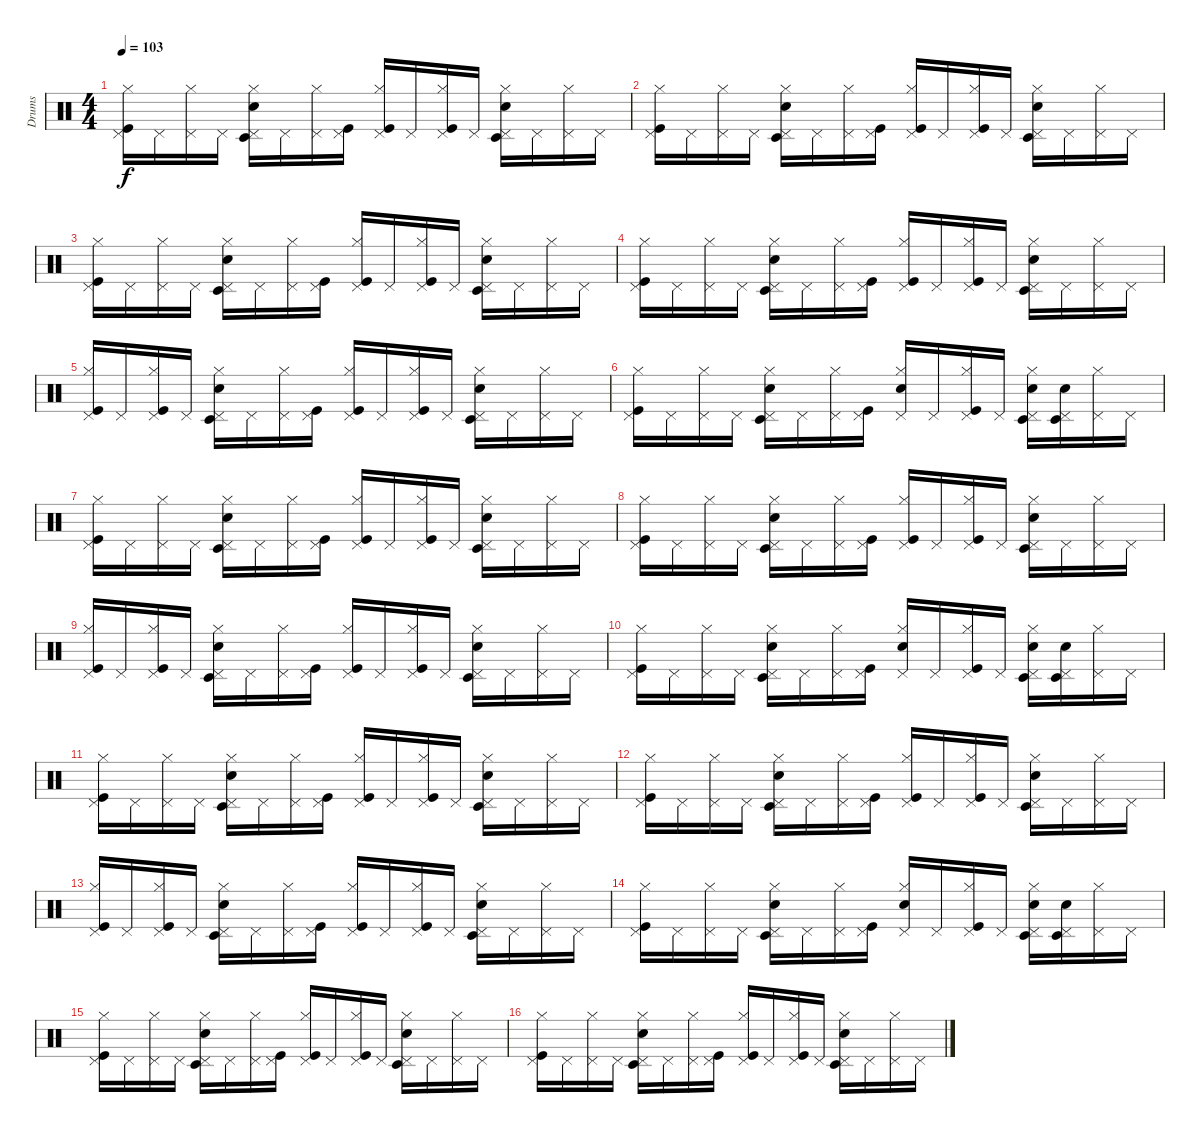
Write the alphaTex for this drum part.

\track ("Drums" "Drums") {instrument percussion}
\staff {score}
\articulation defaults
\ts (4 4)
\tempo 103
\clef neutral
\ks c
("Pedal Hi-Hat (hit)" "Hi-Hat (closed)" "Kick (hit)").16{dy f} "Pedal Hi-Hat (hit)".16 ("Pedal Hi-Hat (hit)" "Hi-Hat (closed)").16 "Pedal Hi-Hat (hit)".16 ("Pedal Hi-Hat (hit)" "Timbale low (hit)" "Hi-Hat (closed)" "Electric Snare (hit)").16 "Pedal Hi-Hat (hit)".16 ("Pedal Hi-Hat (hit)" "Hi-Hat (closed)").16 ("Pedal Hi-Hat (hit)" "Kick (hit)").16 ("Pedal Hi-Hat (hit)" "Kick (hit)" "Hi-Hat (closed)").16 "Pedal Hi-Hat (hit)".16 ("Pedal Hi-Hat (hit)" "Kick (hit)" "Hi-Hat (closed)").16 "Pedal Hi-Hat (hit)".16 ("Pedal Hi-Hat (hit)" "Timbale low (hit)" "Electric Snare (hit)" "Hi-Hat (closed)").16 "Pedal Hi-Hat (hit)".16 ("Pedal Hi-Hat (hit)" "Hi-Hat (closed)").16 "Pedal Hi-Hat (hit)".16 |
("Pedal Hi-Hat (hit)" "Hi-Hat (closed)" "Kick (hit)").16 "Pedal Hi-Hat (hit)".16 ("Pedal Hi-Hat (hit)" "Hi-Hat (closed)").16 "Pedal Hi-Hat (hit)".16 ("Pedal Hi-Hat (hit)" "Hi-Hat (closed)" "Electric Snare (hit)" "Timbale low (hit)").16 "Pedal Hi-Hat (hit)".16 ("Pedal Hi-Hat (hit)" "Hi-Hat (closed)").16 ("Pedal Hi-Hat (hit)" "Kick (hit)").16 ("Pedal Hi-Hat (hit)" "Kick (hit)" "Hi-Hat (closed)").16 "Pedal Hi-Hat (hit)".16 ("Pedal Hi-Hat (hit)" "Kick (hit)" "Hi-Hat (closed)").16 "Pedal Hi-Hat (hit)".16 ("Pedal Hi-Hat (hit)" "Electric Snare (hit)" "Hi-Hat (closed)" "Timbale low (hit)").16 "Pedal Hi-Hat (hit)".16 ("Pedal Hi-Hat (hit)" "Hi-Hat (closed)").16 "Pedal Hi-Hat (hit)".16 |
("Hi-Hat (closed)" "Kick (hit)" "Pedal Hi-Hat (hit)").16 "Pedal Hi-Hat (hit)".16 ("Hi-Hat (closed)" "Pedal Hi-Hat (hit)").16 "Pedal Hi-Hat (hit)".16 ("Hi-Hat (closed)" "Timbale low (hit)" "Electric Snare (hit)" "Pedal Hi-Hat (hit)").16 "Pedal Hi-Hat (hit)".16 ("Hi-Hat (closed)" "Pedal Hi-Hat (hit)").16 ("Kick (hit)" "Pedal Hi-Hat (hit)").16 ("Hi-Hat (closed)" "Kick (hit)" "Pedal Hi-Hat (hit)").16 "Pedal Hi-Hat (hit)".16 ("Hi-Hat (closed)" "Kick (hit)" "Pedal Hi-Hat (hit)").16 "Pedal Hi-Hat (hit)".16 ("Timbale low (hit)" "Electric Snare (hit)" "Hi-Hat (closed)" "Pedal Hi-Hat (hit)").16 "Pedal Hi-Hat (hit)".16 ("Hi-Hat (closed)" "Pedal Hi-Hat (hit)").16 "Pedal Hi-Hat (hit)".16 |
("Hi-Hat (closed)" "Kick (hit)" "Pedal Hi-Hat (hit)").16 "Pedal Hi-Hat (hit)".16 ("Hi-Hat (closed)" "Pedal Hi-Hat (hit)").16 "Pedal Hi-Hat (hit)".16 ("Timbale low (hit)" "Hi-Hat (closed)" "Electric Snare (hit)" "Pedal Hi-Hat (hit)").16 "Pedal Hi-Hat (hit)".16 ("Hi-Hat (closed)" "Pedal Hi-Hat (hit)").16 ("Kick (hit)" "Pedal Hi-Hat (hit)").16 ("Hi-Hat (closed)" "Kick (hit)" "Pedal Hi-Hat (hit)").16 "Pedal Hi-Hat (hit)".16 ("Hi-Hat (closed)" "Kick (hit)" "Pedal Hi-Hat (hit)").16 "Pedal Hi-Hat (hit)".16 ("Electric Snare (hit)" "Hi-Hat (closed)" "Timbale low (hit)" "Pedal Hi-Hat (hit)").16 "Pedal Hi-Hat (hit)".16 ("Hi-Hat (closed)" "Pedal Hi-Hat (hit)").16 "Pedal Hi-Hat (hit)".16 |
("Hi-Hat (closed)" "Kick (hit)" "Pedal Hi-Hat (hit)").16 "Pedal Hi-Hat (hit)".16 ("Kick (hit)" "Hi-Hat (closed)" "Pedal Hi-Hat (hit)").16 "Pedal Hi-Hat (hit)".16 ("Timbale low (hit)" "Hi-Hat (closed)" "Electric Snare (hit)" "Pedal Hi-Hat (hit)").16 "Pedal Hi-Hat (hit)".16 ("Hi-Hat (closed)" "Pedal Hi-Hat (hit)").16 ("Kick (hit)" "Pedal Hi-Hat (hit)").16 ("Kick (hit)" "Hi-Hat (closed)" "Pedal Hi-Hat (hit)").16 "Pedal Hi-Hat (hit)".16 ("Kick (hit)" "Hi-Hat (closed)" "Pedal Hi-Hat (hit)").16 "Pedal Hi-Hat (hit)".16 ("Timbale low (hit)" "Electric Snare (hit)" "Hi-Hat (closed)" "Pedal Hi-Hat (hit)").16 "Pedal Hi-Hat (hit)".16 ("Hi-Hat (closed)" "Pedal Hi-Hat (hit)").16 "Pedal Hi-Hat (hit)".16 |
("Hi-Hat (closed)" "Kick (hit)" "Pedal Hi-Hat (hit)").16 "Pedal Hi-Hat (hit)".16 ("Hi-Hat (closed)" "Pedal Hi-Hat (hit)").16 "Pedal Hi-Hat (hit)".16 ("Hi-Hat (closed)" "Electric Snare (hit)" "Timbale low (hit)" "Pedal Hi-Hat (hit)").16 "Pedal Hi-Hat (hit)".16 ("Hi-Hat (closed)" "Pedal Hi-Hat (hit)").16 ("Pedal Hi-Hat (hit)" "Kick (hit)").16 ("Hi-Hat (closed)" "Pedal Hi-Hat (hit)" "Electric Snare (hit)").16 "Pedal Hi-Hat (hit)".16 ("Kick (hit)" "Hi-Hat (closed)" "Pedal Hi-Hat (hit)").16 "Pedal Hi-Hat (hit)".16 ("Electric Snare (hit)" "Hi-Hat (closed)" "Timbale low (hit)" "Pedal Hi-Hat (hit)").16 ("Timbale low (hit)" "Electric Snare (hit)" "Pedal Hi-Hat (hit)").16 ("Hi-Hat (closed)" "Pedal Hi-Hat (hit)").16 "Pedal Hi-Hat (hit)".16 |
("Hi-Hat (closed)" "Kick (hit)" "Pedal Hi-Hat (hit)").16 "Pedal Hi-Hat (hit)".16 ("Hi-Hat (closed)" "Pedal Hi-Hat (hit)").16 "Pedal Hi-Hat (hit)".16 ("Hi-Hat (closed)" "Timbale low (hit)" "Electric Snare (hit)" "Pedal Hi-Hat (hit)").16 "Pedal Hi-Hat (hit)".16 ("Hi-Hat (closed)" "Pedal Hi-Hat (hit)").16 ("Kick (hit)" "Pedal Hi-Hat (hit)").16 ("Hi-Hat (closed)" "Kick (hit)" "Pedal Hi-Hat (hit)").16 "Pedal Hi-Hat (hit)".16 ("Hi-Hat (closed)" "Kick (hit)" "Pedal Hi-Hat (hit)").16 "Pedal Hi-Hat (hit)".16 ("Timbale low (hit)" "Electric Snare (hit)" "Hi-Hat (closed)" "Pedal Hi-Hat (hit)").16 "Pedal Hi-Hat (hit)".16 ("Hi-Hat (closed)" "Pedal Hi-Hat (hit)").16 "Pedal Hi-Hat (hit)".16 |
("Hi-Hat (closed)" "Kick (hit)" "Pedal Hi-Hat (hit)").16 "Pedal Hi-Hat (hit)".16 ("Hi-Hat (closed)" "Pedal Hi-Hat (hit)").16 "Pedal Hi-Hat (hit)".16 ("Timbale low (hit)" "Hi-Hat (closed)" "Electric Snare (hit)" "Pedal Hi-Hat (hit)").16 "Pedal Hi-Hat (hit)".16 ("Hi-Hat (closed)" "Pedal Hi-Hat (hit)").16 ("Kick (hit)" "Pedal Hi-Hat (hit)").16 ("Hi-Hat (closed)" "Kick (hit)" "Pedal Hi-Hat (hit)").16 "Pedal Hi-Hat (hit)".16 ("Hi-Hat (closed)" "Kick (hit)" "Pedal Hi-Hat (hit)").16 "Pedal Hi-Hat (hit)".16 ("Electric Snare (hit)" "Hi-Hat (closed)" "Timbale low (hit)" "Pedal Hi-Hat (hit)").16 "Pedal Hi-Hat (hit)".16 ("Hi-Hat (closed)" "Pedal Hi-Hat (hit)").16 "Pedal Hi-Hat (hit)".16 |
("Hi-Hat (closed)" "Kick (hit)" "Pedal Hi-Hat (hit)").16 "Pedal Hi-Hat (hit)".16 ("Kick (hit)" "Hi-Hat (closed)" "Pedal Hi-Hat (hit)").16 "Pedal Hi-Hat (hit)".16 ("Timbale low (hit)" "Hi-Hat (closed)" "Electric Snare (hit)" "Pedal Hi-Hat (hit)").16 "Pedal Hi-Hat (hit)".16 ("Hi-Hat (closed)" "Pedal Hi-Hat (hit)").16 ("Kick (hit)" "Pedal Hi-Hat (hit)").16 ("Kick (hit)" "Hi-Hat (closed)" "Pedal Hi-Hat (hit)").16 "Pedal Hi-Hat (hit)".16 ("Kick (hit)" "Hi-Hat (closed)" "Pedal Hi-Hat (hit)").16 "Pedal Hi-Hat (hit)".16 ("Timbale low (hit)" "Electric Snare (hit)" "Hi-Hat (closed)" "Pedal Hi-Hat (hit)").16 "Pedal Hi-Hat (hit)".16 ("Hi-Hat (closed)" "Pedal Hi-Hat (hit)").16 "Pedal Hi-Hat (hit)".16 |
("Hi-Hat (closed)" "Kick (hit)" "Pedal Hi-Hat (hit)").16 "Pedal Hi-Hat (hit)".16 ("Hi-Hat (closed)" "Pedal Hi-Hat (hit)").16 "Pedal Hi-Hat (hit)".16 ("Hi-Hat (closed)" "Electric Snare (hit)" "Timbale low (hit)" "Pedal Hi-Hat (hit)").16 "Pedal Hi-Hat (hit)".16 ("Hi-Hat (closed)" "Pedal Hi-Hat (hit)").16 ("Pedal Hi-Hat (hit)" "Kick (hit)").16 ("Hi-Hat (closed)" "Pedal Hi-Hat (hit)" "Electric Snare (hit)").16 "Pedal Hi-Hat (hit)".16 ("Kick (hit)" "Hi-Hat (closed)" "Pedal Hi-Hat (hit)").16 "Pedal Hi-Hat (hit)".16 ("Electric Snare (hit)" "Hi-Hat (closed)" "Timbale low (hit)" "Pedal Hi-Hat (hit)").16 ("Timbale low (hit)" "Electric Snare (hit)" "Pedal Hi-Hat (hit)").16 ("Hi-Hat (closed)" "Pedal Hi-Hat (hit)").16 "Pedal Hi-Hat (hit)".16 |
("Hi-Hat (closed)" "Kick (hit)" "Pedal Hi-Hat (hit)").16 "Pedal Hi-Hat (hit)".16 ("Hi-Hat (closed)" "Pedal Hi-Hat (hit)").16 "Pedal Hi-Hat (hit)".16 ("Hi-Hat (closed)" "Timbale low (hit)" "Electric Snare (hit)" "Pedal Hi-Hat (hit)").16 "Pedal Hi-Hat (hit)".16 ("Hi-Hat (closed)" "Pedal Hi-Hat (hit)").16 ("Kick (hit)" "Pedal Hi-Hat (hit)").16 ("Hi-Hat (closed)" "Kick (hit)" "Pedal Hi-Hat (hit)").16 "Pedal Hi-Hat (hit)".16 ("Hi-Hat (closed)" "Kick (hit)" "Pedal Hi-Hat (hit)").16 "Pedal Hi-Hat (hit)".16 ("Timbale low (hit)" "Electric Snare (hit)" "Hi-Hat (closed)" "Pedal Hi-Hat (hit)").16 "Pedal Hi-Hat (hit)".16 ("Hi-Hat (closed)" "Pedal Hi-Hat (hit)").16 "Pedal Hi-Hat (hit)".16 |
("Hi-Hat (closed)" "Kick (hit)" "Pedal Hi-Hat (hit)").16 "Pedal Hi-Hat (hit)".16 ("Hi-Hat (closed)" "Pedal Hi-Hat (hit)").16 "Pedal Hi-Hat (hit)".16 ("Timbale low (hit)" "Hi-Hat (closed)" "Electric Snare (hit)" "Pedal Hi-Hat (hit)").16 "Pedal Hi-Hat (hit)".16 ("Hi-Hat (closed)" "Pedal Hi-Hat (hit)").16 ("Kick (hit)" "Pedal Hi-Hat (hit)").16 ("Hi-Hat (closed)" "Kick (hit)" "Pedal Hi-Hat (hit)").16 "Pedal Hi-Hat (hit)".16 ("Hi-Hat (closed)" "Kick (hit)" "Pedal Hi-Hat (hit)").16 "Pedal Hi-Hat (hit)".16 ("Electric Snare (hit)" "Hi-Hat (closed)" "Timbale low (hit)" "Pedal Hi-Hat (hit)").16 "Pedal Hi-Hat (hit)".16 ("Hi-Hat (closed)" "Pedal Hi-Hat (hit)").16 "Pedal Hi-Hat (hit)".16 |
("Hi-Hat (closed)" "Kick (hit)" "Pedal Hi-Hat (hit)").16 "Pedal Hi-Hat (hit)".16 ("Kick (hit)" "Hi-Hat (closed)" "Pedal Hi-Hat (hit)").16 "Pedal Hi-Hat (hit)".16 ("Timbale low (hit)" "Hi-Hat (closed)" "Electric Snare (hit)" "Pedal Hi-Hat (hit)").16 "Pedal Hi-Hat (hit)".16 ("Hi-Hat (closed)" "Pedal Hi-Hat (hit)").16 ("Kick (hit)" "Pedal Hi-Hat (hit)").16 ("Kick (hit)" "Hi-Hat (closed)" "Pedal Hi-Hat (hit)").16 "Pedal Hi-Hat (hit)".16 ("Kick (hit)" "Hi-Hat (closed)" "Pedal Hi-Hat (hit)").16 "Pedal Hi-Hat (hit)".16 ("Timbale low (hit)" "Electric Snare (hit)" "Hi-Hat (closed)" "Pedal Hi-Hat (hit)").16 "Pedal Hi-Hat (hit)".16 ("Hi-Hat (closed)" "Pedal Hi-Hat (hit)").16 "Pedal Hi-Hat (hit)".16 |
("Hi-Hat (closed)" "Kick (hit)" "Pedal Hi-Hat (hit)").16 "Pedal Hi-Hat (hit)".16 ("Hi-Hat (closed)" "Pedal Hi-Hat (hit)").16 "Pedal Hi-Hat (hit)".16 ("Hi-Hat (closed)" "Electric Snare (hit)" "Timbale low (hit)" "Pedal Hi-Hat (hit)").16 "Pedal Hi-Hat (hit)".16 ("Hi-Hat (closed)" "Pedal Hi-Hat (hit)").16 ("Pedal Hi-Hat (hit)" "Kick (hit)").16 ("Hi-Hat (closed)" "Pedal Hi-Hat (hit)" "Electric Snare (hit)").16 "Pedal Hi-Hat (hit)".16 ("Kick (hit)" "Hi-Hat (closed)" "Pedal Hi-Hat (hit)").16 "Pedal Hi-Hat (hit)".16 ("Electric Snare (hit)" "Hi-Hat (closed)" "Timbale low (hit)" "Pedal Hi-Hat (hit)").16 ("Timbale low (hit)" "Electric Snare (hit)" "Pedal Hi-Hat (hit)").16 ("Hi-Hat (closed)" "Pedal Hi-Hat (hit)").16 "Pedal Hi-Hat (hit)".16 |
("Hi-Hat (closed)" "Kick (hit)" "Pedal Hi-Hat (hit)").16 "Pedal Hi-Hat (hit)".16 ("Hi-Hat (closed)" "Pedal Hi-Hat (hit)").16 "Pedal Hi-Hat (hit)".16 ("Hi-Hat (closed)" "Timbale low (hit)" "Electric Snare (hit)" "Pedal Hi-Hat (hit)").16 "Pedal Hi-Hat (hit)".16 ("Hi-Hat (closed)" "Pedal Hi-Hat (hit)").16 ("Kick (hit)" "Pedal Hi-Hat (hit)").16 ("Hi-Hat (closed)" "Kick (hit)" "Pedal Hi-Hat (hit)").16 "Pedal Hi-Hat (hit)".16 ("Hi-Hat (closed)" "Kick (hit)" "Pedal Hi-Hat (hit)").16 "Pedal Hi-Hat (hit)".16 ("Timbale low (hit)" "Electric Snare (hit)" "Hi-Hat (closed)" "Pedal Hi-Hat (hit)").16 "Pedal Hi-Hat (hit)".16 ("Hi-Hat (closed)" "Pedal Hi-Hat (hit)").16 "Pedal Hi-Hat (hit)".16 |
("Hi-Hat (closed)" "Kick (hit)" "Pedal Hi-Hat (hit)").16 "Pedal Hi-Hat (hit)".16 ("Hi-Hat (closed)" "Pedal Hi-Hat (hit)").16 "Pedal Hi-Hat (hit)".16 ("Timbale low (hit)" "Hi-Hat (closed)" "Electric Snare (hit)" "Pedal Hi-Hat (hit)").16 "Pedal Hi-Hat (hit)".16 ("Hi-Hat (closed)" "Pedal Hi-Hat (hit)").16 ("Kick (hit)" "Pedal Hi-Hat (hit)").16 ("Hi-Hat (closed)" "Kick (hit)" "Pedal Hi-Hat (hit)").16 "Pedal Hi-Hat (hit)".16 ("Hi-Hat (closed)" "Kick (hit)" "Pedal Hi-Hat (hit)").16 "Pedal Hi-Hat (hit)".16 ("Electric Snare (hit)" "Hi-Hat (closed)" "Timbale low (hit)" "Pedal Hi-Hat (hit)").16 "Pedal Hi-Hat (hit)".16 ("Hi-Hat (closed)" "Pedal Hi-Hat (hit)").16 "Pedal Hi-Hat (hit)".16
